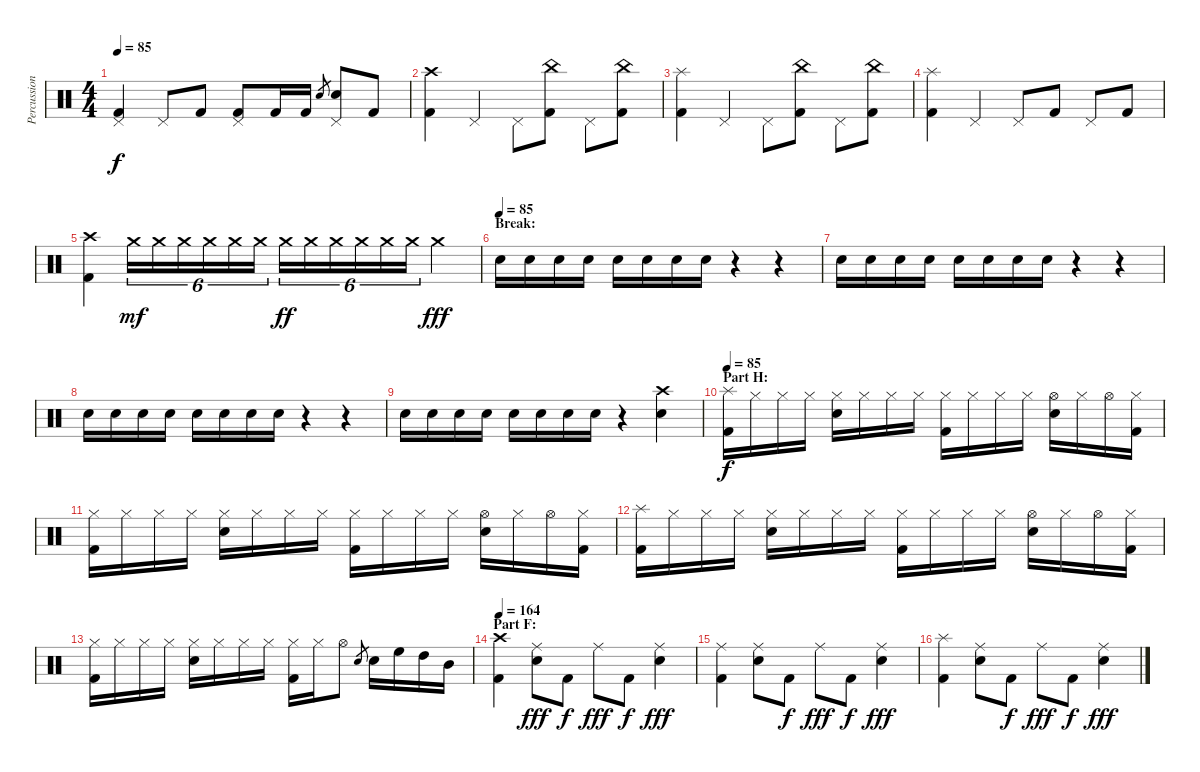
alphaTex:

\track ("Percussion" "Percussion") {instrument percussion}
\staff {score}
\articulation defaults
\ts (4 4)
\tempo 85
\clef neutral
\ks c
("Pedal Hi-Hat (hit)" "Kick (hit) 2").4{dy f} "Pedal Hi-Hat (hit)".8 "Kick (hit) 2".8 ("Pedal Hi-Hat (hit)" "Kick (hit) 2").8 "Kick (hit) 2".16 "Kick (hit) 2".16 "Electric Snare (hit)".8{gr} ("Pedal Hi-Hat (hit)" "Electric Snare (hit)").8 "Kick (hit) 2".8 |
("Crash high (hit)" "Kick (hit) 2").4 "Pedal Hi-Hat (hit)".4 "Pedal Hi-Hat (hit)".8 ("China (hit)" "Kick (hit) 2").8 "Pedal Hi-Hat (hit)".8 ("China (hit)" "Kick (hit) 2").8 |
("Splash (hit)" "Kick (hit) 2").4 "Pedal Hi-Hat (hit)".4 "Pedal Hi-Hat (hit)".8 ("China (hit)" "Kick (hit) 2").8 "Pedal Hi-Hat (hit)".8 ("China (hit)" "Kick (hit) 2").8 |
("Splash (hit)" "Kick (hit) 2").4 "Pedal Hi-Hat (hit)".4 "Pedal Hi-Hat (hit)".8 "Kick (hit) 2".8 "Pedal Hi-Hat (hit)".8 "Kick (hit) 2".8 |
("Crash high (hit)" "Kick (hit) 2").4 "Crash medium (hit)".16{tu (6 4) dy mf} "Crash medium (hit)".16{tu (6 4)} "Crash medium (hit)".16{tu (6 4)} "Crash medium (hit)".16{tu (6 4)} "Crash medium (hit)".16{tu (6 4)} "Crash medium (hit)".16{tu (6 4)} "Crash medium (hit)".16{tu (6 4) dy ff} "Crash medium (hit)".16{tu (6 4)} "Crash medium (hit)".16{tu (6 4)} "Crash medium (hit)".16{tu (6 4)} "Crash medium (hit)".16{tu (6 4)} "Crash medium (hit)".16{tu (6 4)} "Crash medium (hit)".4{dy fff} |
\section ("" "Break:")
\tempo (85)
"Electric Snare (hit)".16 "Electric Snare (hit)".16 "Electric Snare (hit)".16 "Electric Snare (hit)".16 "Electric Snare (hit)".16 "Electric Snare (hit)".16 "Electric Snare (hit)".16 "Electric Snare (hit)".16 r.4 r.4 |
"Electric Snare (hit)".16 "Electric Snare (hit)".16 "Electric Snare (hit)".16 "Electric Snare (hit)".16 "Electric Snare (hit)".16 "Electric Snare (hit)".16 "Electric Snare (hit)".16 "Electric Snare (hit)".16 r.4 r.4 |
"Electric Snare (hit)".16 "Electric Snare (hit)".16 "Electric Snare (hit)".16 "Electric Snare (hit)".16 "Electric Snare (hit)".16 "Electric Snare (hit)".16 "Electric Snare (hit)".16 "Electric Snare (hit)".16 r.4 r.4 |
"Electric Snare (hit)".16 "Electric Snare (hit)".16 "Electric Snare (hit)".16 "Electric Snare (hit)".16 "Electric Snare (hit)".16 "Electric Snare (hit)".16 "Electric Snare (hit)".16 "Electric Snare (hit)".16 r.4 ("Crash high (hit)" "Electric Snare (hit)").4 |
\section ("" "Part H:")
\tempo 85
("Splash (hit)" "Kick (hit) 2").16{dy f} "Hi-Hat (closed)".16 "Hi-Hat (closed)".16 "Hi-Hat (closed)".16 ("Hi-Hat (closed)" "Electric Snare (hit)").16 "Hi-Hat (closed)".16 "Hi-Hat (closed)".16 "Hi-Hat (closed)".16 ("Hi-Hat (closed)" "Kick (hit) 2").16 "Hi-Hat (closed)".16 "Hi-Hat (closed)".16 "Hi-Hat (closed)".16 ("Hi-Hat (open)" "Electric Snare (hit)").16 "Hi-Hat (closed)".16 "Hi-Hat (open)".16 ("Hi-Hat (closed)" "Kick (hit) 2").16 |
("Hi-Hat (closed)" "Kick (hit) 2").16 "Hi-Hat (closed)".16 "Hi-Hat (closed)".16 "Hi-Hat (closed)".16 ("Hi-Hat (closed)" "Electric Snare (hit)").16 "Hi-Hat (closed)".16 "Hi-Hat (closed)".16 "Hi-Hat (closed)".16 ("Hi-Hat (closed)" "Kick (hit) 2").16 "Hi-Hat (closed)".16 "Hi-Hat (closed)".16 "Hi-Hat (closed)".16 ("Hi-Hat (open)" "Electric Snare (hit)").16 "Hi-Hat (closed)".16 "Hi-Hat (open)".16 ("Hi-Hat (closed)" "Kick (hit) 2").16 |
("Splash (hit)" "Kick (hit) 2").16 "Hi-Hat (closed)".16 "Hi-Hat (closed)".16 "Hi-Hat (closed)".16 ("Hi-Hat (closed)" "Electric Snare (hit)").16 "Hi-Hat (closed)".16 "Hi-Hat (closed)".16 "Hi-Hat (closed)".16 ("Hi-Hat (closed)" "Kick (hit) 2").16 "Hi-Hat (closed)".16 "Hi-Hat (closed)".16 "Hi-Hat (closed)".16 ("Hi-Hat (open)" "Electric Snare (hit)").16 "Hi-Hat (closed)".16 "Hi-Hat (open)".16 ("Hi-Hat (closed)" "Kick (hit) 2").16 |
("Hi-Hat (closed)" "Kick (hit) 2").16 "Hi-Hat (closed)".16 "Hi-Hat (closed)".16 "Hi-Hat (closed)".16 ("Hi-Hat (closed)" "Electric Snare (hit)").16 "Hi-Hat (closed)".16 "Hi-Hat (closed)".16 "Hi-Hat (closed)".16 ("Hi-Hat (closed)" "Kick (hit) 2").16 "Hi-Hat (closed)".16 "Hi-Hat (open)".8 "Electric Snare (hit)".8{gr} "Electric Snare (hit)".16 "High Floor Tom (hit)".16 "High Tom (hit)".16 "Mid Tom (hit)".16 |
\section ("" "Part F:")
\tempo 164
("Crash high (hit)" "Kick (hit) 2").4 ("Ride (middle)" "Electric Snare (hit)").8{dy fff} "Kick (hit) 2".8{dy f} "Ride (middle)".8{dy fff} "Kick (hit) 2".8{dy f} ("Ride (middle)" "Electric Snare (hit)").4{dy fff} |
("Ride (middle)" "Kick (hit) 2").4 ("Ride (middle)" "Electric Snare (hit)").8 "Kick (hit) 2".8{dy f} "Ride (middle)".8{dy fff} "Kick (hit) 2".8{dy f} ("Ride (middle)" "Electric Snare (hit)").4{dy fff} |
("Splash (hit)" "Kick (hit) 2").4 ("Ride (middle)" "Electric Snare (hit)").8 "Kick (hit) 2".8{dy f} "Ride (middle)".8{dy fff} "Kick (hit) 2".8{dy f} ("Ride (middle)" "Electric Snare (hit)").4{dy fff}
